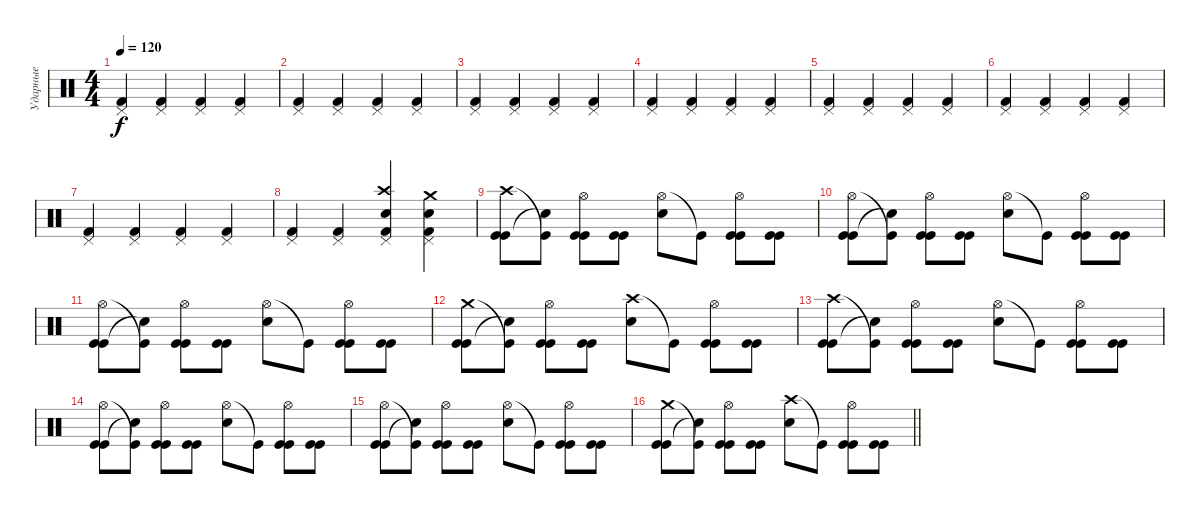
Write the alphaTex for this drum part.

\track ("Ударные" "Ударные") {instrument percussion}
\staff {score}
\articulation defaults
\ts (4 4)
\tempo 120
\clef neutral
\ks c
("Pedal Hi-Hat (hit)" "Kick (hit) 2").4{dy f} ("Pedal Hi-Hat (hit)" "Kick (hit) 2").4 ("Pedal Hi-Hat (hit)" "Kick (hit) 2").4 ("Pedal Hi-Hat (hit)" "Kick (hit) 2").4 |
("Pedal Hi-Hat (hit)" "Kick (hit) 2").4 ("Pedal Hi-Hat (hit)" "Kick (hit) 2").4 ("Pedal Hi-Hat (hit)" "Kick (hit) 2").4 ("Pedal Hi-Hat (hit)" "Kick (hit) 2").4 |
("Pedal Hi-Hat (hit)" "Kick (hit) 2").4 ("Pedal Hi-Hat (hit)" "Kick (hit) 2").4 ("Pedal Hi-Hat (hit)" "Kick (hit) 2").4 ("Pedal Hi-Hat (hit)" "Kick (hit) 2").4 |
("Pedal Hi-Hat (hit)" "Kick (hit) 2").4 ("Pedal Hi-Hat (hit)" "Kick (hit) 2").4 ("Pedal Hi-Hat (hit)" "Kick (hit) 2").4 ("Pedal Hi-Hat (hit)" "Kick (hit) 2").4 |
("Pedal Hi-Hat (hit)" "Kick (hit) 2").4 ("Pedal Hi-Hat (hit)" "Kick (hit) 2").4 ("Pedal Hi-Hat (hit)" "Kick (hit) 2").4 ("Pedal Hi-Hat (hit)" "Kick (hit) 2").4 |
("Pedal Hi-Hat (hit)" "Kick (hit) 2").4 ("Pedal Hi-Hat (hit)" "Kick (hit) 2").4 ("Pedal Hi-Hat (hit)" "Kick (hit) 2").4 ("Pedal Hi-Hat (hit)" "Kick (hit) 2").4 |
("Pedal Hi-Hat (hit)" "Kick (hit) 2").4 ("Pedal Hi-Hat (hit)" "Kick (hit) 2").4 ("Pedal Hi-Hat (hit)" "Kick (hit) 2").4 ("Pedal Hi-Hat (hit)" "Kick (hit) 2").4 |
("Pedal Hi-Hat (hit)" "Kick (hit) 2").4 ("Pedal Hi-Hat (hit)" "Kick (hit) 2").4 ("Crash high (hit)" "Pedal Hi-Hat (hit)" "Snare (hit) 2" "Kick (hit) 2").4 ("Crash medium (hit)" "Pedal Hi-Hat (hit)" "Snare (hit) 2" "Kick (hit) 2").4 |
("Crash high (hit)" "Kick (hit)" "Kick (hit)").8 ("Kick (hit)"{t} "Snare (hit)"{t}).8 ("Hi-Hat (open)" "Kick (hit)" "Kick (hit)").8 ("Kick (hit)" "Kick (hit)").8 ("Hi-Hat (open)" "Snare (hit) 2").8 "Kick (hit)"{t}.8 ("Hi-Hat (open)" "Kick (hit)" "Kick (hit)").8 ("Kick (hit)" "Kick (hit)").8 |
("Hi-Hat (open)" "Kick (hit)" "Kick (hit)").8 ("Kick (hit)"{t} "Snare (hit)"{t}).8 ("Hi-Hat (open)" "Kick (hit)" "Kick (hit)").8 ("Kick (hit)" "Kick (hit)").8 ("Hi-Hat (open)" "Snare (hit) 2").8 "Kick (hit)"{t}.8 ("Hi-Hat (open)" "Kick (hit)" "Kick (hit)").8 ("Kick (hit)" "Kick (hit)").8 |
("Hi-Hat (open)" "Kick (hit)" "Kick (hit)").8 ("Kick (hit)"{t} "Snare (hit)"{t}).8 ("Hi-Hat (open)" "Kick (hit)" "Kick (hit)").8 ("Kick (hit)" "Kick (hit)").8 ("Hi-Hat (open)" "Snare (hit) 2").8 "Kick (hit)"{t}.8 ("Hi-Hat (open)" "Kick (hit)" "Kick (hit)").8 ("Kick (hit)" "Kick (hit)").8 |
("Crash medium (hit)" "Kick (hit)" "Kick (hit)").8 ("Kick (hit)"{t} "Snare (hit)"{t}).8 ("Hi-Hat (open)" "Kick (hit)" "Kick (hit)").8 ("Kick (hit)" "Kick (hit)").8 ("Crash high (hit)" "Snare (hit) 2").8 "Kick (hit)"{t}.8 ("Hi-Hat (open)" "Kick (hit)" "Kick (hit)").8 ("Kick (hit)" "Kick (hit)").8 |
("Crash high (hit)" "Kick (hit)" "Kick (hit)").8 ("Kick (hit)"{t} "Snare (hit)"{t}).8 ("Hi-Hat (open)" "Kick (hit)" "Kick (hit)").8 ("Kick (hit)" "Kick (hit)").8 ("Hi-Hat (open)" "Snare (hit) 2").8 "Kick (hit)"{t}.8 ("Hi-Hat (open)" "Kick (hit)" "Kick (hit)").8 ("Kick (hit)" "Kick (hit)").8 |
("Hi-Hat (open)" "Kick (hit)" "Kick (hit)").8 ("Kick (hit)"{t} "Snare (hit)"{t}).8 ("Hi-Hat (open)" "Kick (hit)" "Kick (hit)").8 ("Kick (hit)" "Kick (hit)").8 ("Hi-Hat (open)" "Snare (hit) 2").8 "Kick (hit)"{t}.8 ("Hi-Hat (open)" "Kick (hit)" "Kick (hit)").8 ("Kick (hit)" "Kick (hit)").8 |
("Hi-Hat (open)" "Kick (hit)" "Kick (hit)").8 ("Kick (hit)"{t} "Snare (hit)"{t}).8 ("Hi-Hat (open)" "Kick (hit)" "Kick (hit)").8 ("Kick (hit)" "Kick (hit)").8 ("Hi-Hat (open)" "Snare (hit) 2").8 "Kick (hit)"{t}.8 ("Hi-Hat (open)" "Kick (hit)" "Kick (hit)").8 ("Kick (hit)" "Kick (hit)").8 |
\barLineRight lightlight
("Crash medium (hit)" "Kick (hit)" "Kick (hit)").8 ("Kick (hit)"{t} "Snare (hit)"{t}).8 ("Hi-Hat (open)" "Kick (hit)" "Kick (hit)").8 ("Kick (hit)" "Kick (hit)").8 ("Crash high (hit)" "Snare (hit) 2").8 "Kick (hit)"{t}.8 ("Hi-Hat (open)" "Kick (hit)" "Kick (hit)").8 ("Kick (hit)" "Kick (hit)").8
